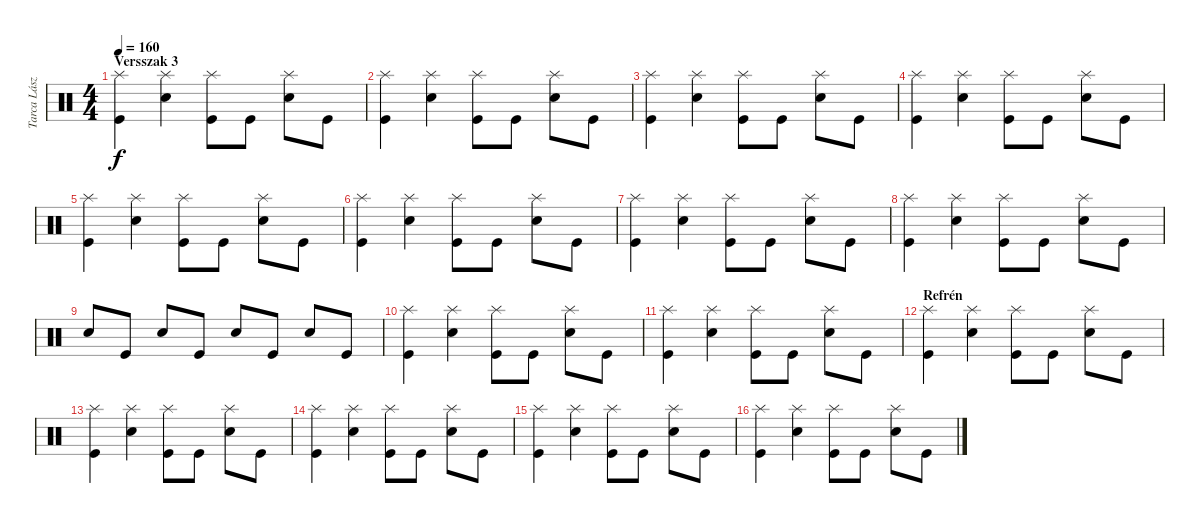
\track ("Tarca László" "Tarca Lász") {instrument percussion}
\staff {score}
\articulation defaults
\ts (4 4)
\section ("" "Versszak 3")
\tempo 160
\clef neutral
\ks c
("Splash (hit)" "Kick (hit)").4{dy f} ("Splash (hit)" "Electric Snare (hit)").4 ("Splash (hit)" "Kick (hit)").8 "Kick (hit)".8 ("Splash (hit)" "Electric Snare (hit)").8 "Kick (hit)".8 |
("Splash (hit)" "Kick (hit)").4 ("Splash (hit)" "Electric Snare (hit)").4 ("Splash (hit)" "Kick (hit)").8 "Kick (hit)".8 ("Splash (hit)" "Electric Snare (hit)").8 "Kick (hit)".8 |
("Splash (hit)" "Kick (hit)").4 ("Splash (hit)" "Electric Snare (hit)").4 ("Splash (hit)" "Kick (hit)").8 "Kick (hit)".8 ("Splash (hit)" "Electric Snare (hit)").8 "Kick (hit)".8 |
("Splash (hit)" "Kick (hit)").4 ("Splash (hit)" "Electric Snare (hit)").4 ("Splash (hit)" "Kick (hit)").8 "Kick (hit)".8 ("Splash (hit)" "Electric Snare (hit)").8 "Kick (hit)".8 |
("Splash (hit)" "Kick (hit)").4 ("Splash (hit)" "Electric Snare (hit)").4 ("Splash (hit)" "Kick (hit)").8 "Kick (hit)".8 ("Splash (hit)" "Electric Snare (hit)").8 "Kick (hit)".8 |
("Splash (hit)" "Kick (hit)").4 ("Splash (hit)" "Electric Snare (hit)").4 ("Splash (hit)" "Kick (hit)").8 "Kick (hit)".8 ("Splash (hit)" "Electric Snare (hit)").8 "Kick (hit)".8 |
("Splash (hit)" "Kick (hit)").4 ("Splash (hit)" "Electric Snare (hit)").4 ("Splash (hit)" "Kick (hit)").8 "Kick (hit)".8 ("Splash (hit)" "Electric Snare (hit)").8 "Kick (hit)".8 |
("Splash (hit)" "Kick (hit)").4 ("Splash (hit)" "Electric Snare (hit)").4 ("Splash (hit)" "Kick (hit)").8 "Kick (hit)".8 ("Splash (hit)" "Electric Snare (hit)").8 "Kick (hit)".8 |
"Snare (hit) 2".8 "Kick (hit)".8 "Snare (hit) 2".8 "Kick (hit)".8 "Snare (hit) 2".8 "Kick (hit)".8 "Snare (hit) 2".8 "Kick (hit)".8 |
("Splash (hit)" "Kick (hit)").4 ("Splash (hit)" "Electric Snare (hit)").4 ("Splash (hit)" "Kick (hit)").8 "Kick (hit)".8 ("Splash (hit)" "Electric Snare (hit)").8 "Kick (hit)".8 |
("Splash (hit)" "Kick (hit)").4 ("Splash (hit)" "Electric Snare (hit)").4 ("Splash (hit)" "Kick (hit)").8 "Kick (hit)".8 ("Splash (hit)" "Electric Snare (hit)").8 "Kick (hit)".8 |
\section ("" "Refrén")
("Splash (hit)" "Kick (hit)").4 ("Splash (hit)" "Electric Snare (hit)").4 ("Splash (hit)" "Kick (hit)").8 "Kick (hit)".8 ("Splash (hit)" "Electric Snare (hit)").8 "Kick (hit)".8 |
("Splash (hit)" "Kick (hit)").4 ("Splash (hit)" "Electric Snare (hit)").4 ("Splash (hit)" "Kick (hit)").8 "Kick (hit)".8 ("Splash (hit)" "Electric Snare (hit)").8 "Kick (hit)".8 |
("Splash (hit)" "Kick (hit)").4 ("Splash (hit)" "Electric Snare (hit)").4 ("Splash (hit)" "Kick (hit)").8 "Kick (hit)".8 ("Splash (hit)" "Electric Snare (hit)").8 "Kick (hit)".8 |
("Splash (hit)" "Kick (hit)").4 ("Splash (hit)" "Electric Snare (hit)").4 ("Splash (hit)" "Kick (hit)").8 "Kick (hit)".8 ("Splash (hit)" "Electric Snare (hit)").8 "Kick (hit)".8 |
("Splash (hit)" "Kick (hit)").4 ("Splash (hit)" "Electric Snare (hit)").4 ("Splash (hit)" "Kick (hit)").8 "Kick (hit)".8 ("Splash (hit)" "Electric Snare (hit)").8 "Kick (hit)".8
